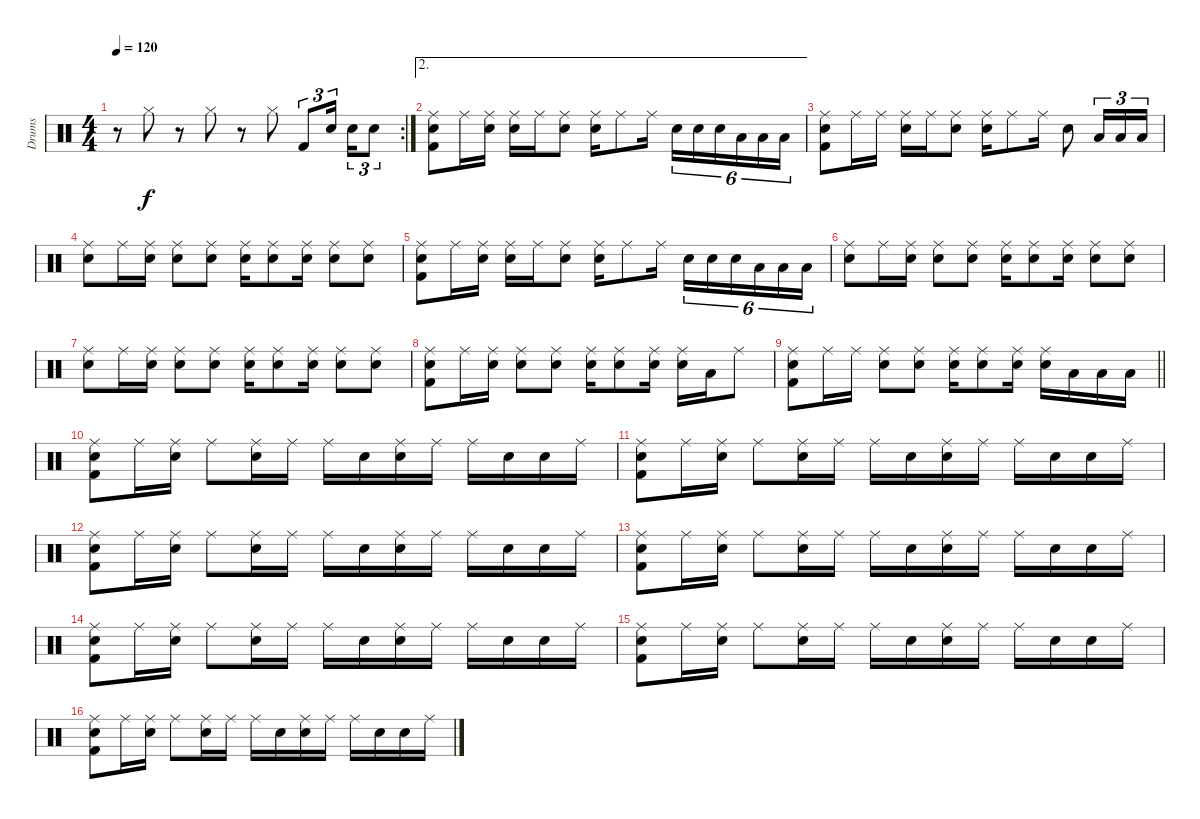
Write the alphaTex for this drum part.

\track ("Drums" "Drums") {instrument percussion}
\staff {score}
\articulation defaults
\rc 2
\ts (4 4)
\tempo 120
\clef neutral
\ks c
r.8{dy f} "Hi-Hat (closed)".8 r.8 "Hi-Hat (closed)".8 r.8 "Hi-Hat (closed)".8 "Kick (hit) 2".8{tu (3 2)} "Snare (hit) 2".16{tu (3 2)} "Snare (hit) 2".16{tu (3 2)} "Snare (hit) 2".8{tu (3 2)} |
\ae 2
("Ride (middle)" "Snare (hit) 2" "Kick (hit) 2").8 "Ride (middle)".16 ("Ride (middle)" "Snare (hit) 2").16 ("Ride (middle)" "Snare (hit) 2").16 "Ride (middle)".16 ("Ride (middle)" "Snare (hit) 2").8 ("Ride (middle)" "Snare (hit) 2").16 "Ride (middle)".8 "Ride (middle)".16 "Snare (hit) 2".16{tu (6 4)} "Snare (hit) 2".16{tu (6 4)} "Snare (hit) 2".16{tu (6 4)} "Low Tom (hit)".16{tu (6 4)} "Low Tom (hit)".16{tu (6 4)} "Low Tom (hit)".16{tu (6 4)} |
("Ride (middle)" "Snare (hit) 2" "Kick (hit) 2").8 "Ride (middle)".16 "Ride (middle)".16 ("Ride (middle)" "Snare (hit) 2").16 "Ride (middle)".16 ("Ride (middle)" "Snare (hit) 2").8 ("Ride (middle)" "Snare (hit) 2").16 "Ride (middle)".8 "Ride (middle)".16 "Snare (hit) 2".8 "Low Tom (hit)".16{tu (3 2)} "Low Tom (hit)".16{tu (3 2)} "Low Tom (hit)".16{tu (3 2)} |
("Ride (middle)" "Snare (hit) 2").8 "Ride (middle)".16 ("Ride (middle)" "Snare (hit) 2").16 ("Ride (middle)" "Snare (hit) 2").8 ("Ride (middle)" "Snare (hit) 2").8 ("Ride (middle)" "Snare (hit) 2").16 ("Ride (middle)" "Snare (hit) 2").8 ("Ride (middle)" "Snare (hit) 2").16 ("Ride (middle)" "Snare (hit) 2").8 ("Ride (middle)" "Snare (hit) 2").8 |
("Ride (middle)" "Snare (hit) 2" "Kick (hit) 2").8 "Ride (middle)".16 ("Ride (middle)" "Snare (hit) 2").16 ("Ride (middle)" "Snare (hit) 2").16 "Ride (middle)".16 ("Ride (middle)" "Snare (hit) 2").8 ("Ride (middle)" "Snare (hit) 2").16 "Ride (middle)".8 "Ride (middle)".16 "Snare (hit) 2".16{tu (6 4)} "Snare (hit) 2".16{tu (6 4)} "Snare (hit) 2".16{tu (6 4)} "Low Tom (hit)".16{tu (6 4)} "Low Tom (hit)".16{tu (6 4)} "Low Tom (hit)".16{tu (6 4)} |
("Ride (middle)" "Snare (hit) 2").8 "Ride (middle)".16 ("Ride (middle)" "Snare (hit) 2").16 ("Ride (middle)" "Snare (hit) 2").8 ("Ride (middle)" "Snare (hit) 2").8 ("Ride (middle)" "Snare (hit) 2").16 ("Ride (middle)" "Snare (hit) 2").8 ("Ride (middle)" "Snare (hit) 2").16 ("Ride (middle)" "Snare (hit) 2").8 ("Ride (middle)" "Snare (hit) 2").8 |
("Ride (middle)" "Snare (hit) 2").8 "Ride (middle)".16 ("Ride (middle)" "Snare (hit) 2").16 ("Ride (middle)" "Snare (hit) 2").8 ("Ride (middle)" "Snare (hit) 2").8 ("Ride (middle)" "Snare (hit) 2").16 ("Ride (middle)" "Snare (hit) 2").8 ("Ride (middle)" "Snare (hit) 2").16 ("Ride (middle)" "Snare (hit) 2").8 ("Ride (middle)" "Snare (hit) 2").8 |
("Ride (middle)" "Snare (hit) 2" "Kick (hit) 2").8 "Ride (middle)".16 ("Ride (middle)" "Snare (hit) 2").16 ("Ride (middle)" "Snare (hit) 2").8 ("Ride (middle)" "Snare (hit) 2").8 ("Ride (middle)" "Snare (hit) 2").16 ("Ride (middle)" "Snare (hit) 2").8 ("Ride (middle)" "Snare (hit)").16 ("Ride (middle)" "Snare (hit) 2").16 "Low Tom (hit)".16 "Ride (middle)".8 |
\barLineRight lightlight
("Ride (middle)" "Snare (hit) 2" "Kick (hit) 2").8 "Ride (middle)".16 "Ride (middle)".16 ("Ride (middle)" "Snare (hit) 2").8 ("Ride (middle)" "Snare (hit) 2").8 ("Ride (middle)" "Snare (hit) 2").16 ("Ride (middle)" "Snare (hit) 2").8 ("Ride (middle)" "Snare (hit) 2").16 ("Ride (middle)" "Snare (hit) 2").16 "Low Tom (hit)".16 "Low Tom (hit)".16 "Low Tom (hit)".16 |
("Ride (middle)" "Kick (hit) 2" "Snare (hit) 2").8 "Ride (middle)".16 ("Ride (middle)" "Snare (hit) 2").16 "Ride (middle)".8 ("Ride (middle)" "Snare (hit) 2").16 "Ride (middle)".16 "Ride (middle)".16 "Snare (hit) 2".16 ("Ride (middle)" "Snare (hit) 2").16 "Ride (middle)".16 "Ride (middle)".16 "Snare (hit) 2".16 "Snare (hit) 2".16 "Ride (middle)".16 |
("Ride (middle)" "Kick (hit) 2" "Snare (hit) 2").8 "Ride (middle)".16 ("Ride (middle)" "Snare (hit) 2").16 "Ride (middle)".8 ("Ride (middle)" "Snare (hit) 2").16 "Ride (middle)".16 "Ride (middle)".16 "Snare (hit) 2".16 ("Ride (middle)" "Snare (hit) 2").16 "Ride (middle)".16 "Ride (middle)".16 "Snare (hit) 2".16 "Snare (hit) 2".16 "Ride (middle)".16 |
("Ride (middle)" "Kick (hit) 2" "Snare (hit) 2").8 "Ride (middle)".16 ("Ride (middle)" "Snare (hit) 2").16 "Ride (middle)".8 ("Ride (middle)" "Snare (hit) 2").16 "Ride (middle)".16 "Ride (middle)".16 "Snare (hit) 2".16 ("Ride (middle)" "Snare (hit) 2").16 "Ride (middle)".16 "Ride (middle)".16 "Snare (hit) 2".16 "Snare (hit) 2".16 "Ride (middle)".16 |
("Ride (middle)" "Kick (hit) 2" "Snare (hit) 2").8 "Ride (middle)".16 ("Ride (middle)" "Snare (hit) 2").16 "Ride (middle)".8 ("Ride (middle)" "Snare (hit) 2").16 "Ride (middle)".16 "Ride (middle)".16 "Snare (hit) 2".16 ("Ride (middle)" "Snare (hit) 2").16 "Ride (middle)".16 "Ride (middle)".16 "Snare (hit) 2".16 "Snare (hit) 2".16 "Ride (middle)".16 |
("Ride (middle)" "Kick (hit) 2" "Snare (hit) 2").8 "Ride (middle)".16 ("Ride (middle)" "Snare (hit) 2").16 "Ride (middle)".8 ("Ride (middle)" "Snare (hit) 2").16 "Ride (middle)".16 "Ride (middle)".16 "Snare (hit) 2".16 ("Ride (middle)" "Snare (hit) 2").16 "Ride (middle)".16 "Ride (middle)".16 "Snare (hit) 2".16 "Snare (hit) 2".16 "Ride (middle)".16 |
("Ride (middle)" "Kick (hit) 2" "Snare (hit) 2").8 "Ride (middle)".16 ("Ride (middle)" "Snare (hit) 2").16 "Ride (middle)".8 ("Ride (middle)" "Snare (hit) 2").16 "Ride (middle)".16 "Ride (middle)".16 "Snare (hit) 2".16 ("Ride (middle)" "Snare (hit) 2").16 "Ride (middle)".16 "Ride (middle)".16 "Snare (hit) 2".16 "Snare (hit) 2".16 "Ride (middle)".16 |
("Ride (middle)" "Kick (hit) 2" "Snare (hit) 2").8 "Ride (middle)".16 ("Ride (middle)" "Snare (hit) 2").16 "Ride (middle)".8 ("Ride (middle)" "Snare (hit) 2").16 "Ride (middle)".16 "Ride (middle)".16 "Snare (hit) 2".16 ("Ride (middle)" "Snare (hit) 2").16 "Ride (middle)".16 "Ride (middle)".16 "Snare (hit) 2".16 "Snare (hit) 2".16 "Ride (middle)".16
